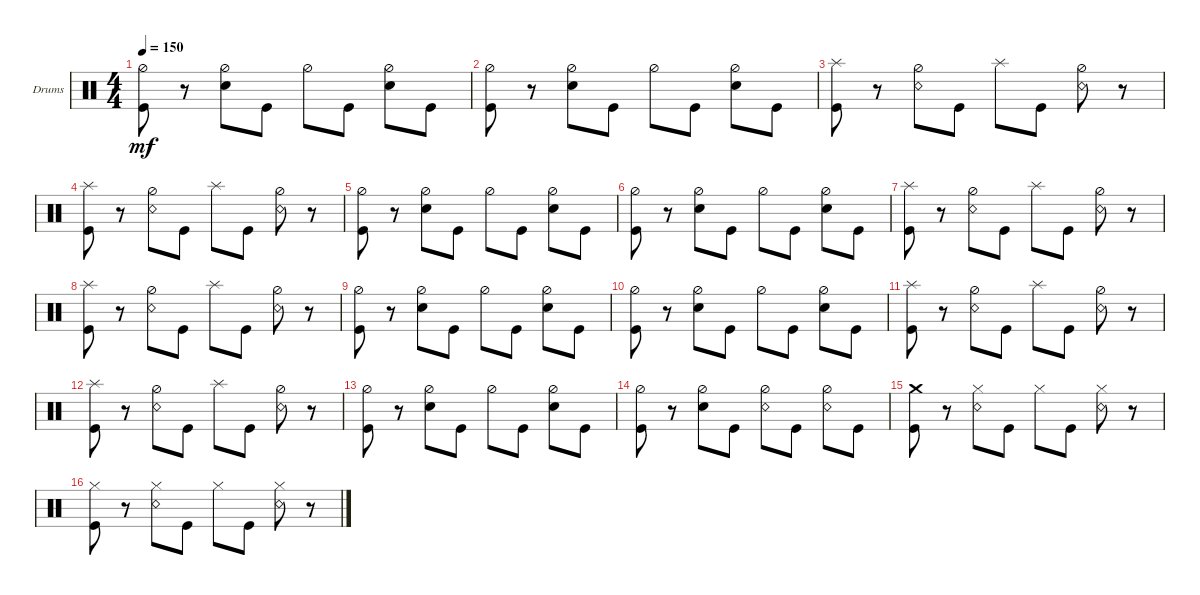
\defaultSystemsLayout 4
\bracketExtendMode groupsimilarinstruments
\firstSystemTrackNameOrientation horizontal
\otherSystemsTrackNameOrientation horizontal
\track ("Drumkit" "Drums") {instrument percussion}
\staff {score}
\articulation defaults
\ts (4 4)
\tempo 150
\clef neutral
\scale
0.333333
\ks c
("Kick (hit)" "Hi-Hat (half)").8{dy mf} r.8 ("Hi-Hat (half)" "Snare (hit) 2").8 "Kick (hit)".8 "Hi-Hat (half)".8 "Kick (hit)".8 ("Hi-Hat (half)" "Snare (hit) 2").8 "Kick (hit)".8 |
\scale
0.333333 ("Kick (hit)" "Hi-Hat (half)").8 r.8 ("Hi-Hat (half)" "Snare (hit) 2").8 "Kick (hit)".8 "Hi-Hat (half)".8 "Kick (hit)".8 ("Hi-Hat (half)" "Snare (hit) 2").8 "Kick (hit)".8 |
\scale
0.333333 ("Kick (hit)" "Splash (hit)").8 r.8 ("Hi-Hat (half)" "Snare (rim shot)").8 "Kick (hit)".8 "Splash (hit)".8 "Kick (hit)".8 ("Hi-Hat (half)" "Snare (rim shot)").8 r.8 |
\scale
0.333333 ("Kick (hit)" "Splash (hit)").8 r.8 ("Hi-Hat (half)" "Snare (rim shot)").8 "Kick (hit)".8 "Splash (hit)".8 "Kick (hit)".8 ("Hi-Hat (half)" "Snare (rim shot)").8 r.8 |
\scale
0.333333 ("Kick (hit)" "Hi-Hat (half)").8 r.8 ("Hi-Hat (half)" "Snare (hit) 2").8 "Kick (hit)".8 "Hi-Hat (half)".8 "Kick (hit)".8 ("Hi-Hat (half)" "Snare (hit) 2").8 "Kick (hit)".8 |
\scale
0.333333 ("Kick (hit)" "Hi-Hat (half)").8 r.8 ("Hi-Hat (half)" "Snare (hit) 2").8 "Kick (hit)".8 "Hi-Hat (half)".8 "Kick (hit)".8 ("Hi-Hat (half)" "Snare (hit) 2").8 "Kick (hit)".8 |
\scale
0.333333 ("Kick (hit)" "Splash (hit)").8 r.8 ("Hi-Hat (half)" "Snare (rim shot)").8 "Kick (hit)".8 "Splash (hit)".8 "Kick (hit)".8 ("Hi-Hat (half)" "Snare (rim shot)").8 r.8 |
\scale
0.333333 ("Kick (hit)" "Splash (hit)").8 r.8 ("Hi-Hat (half)" "Snare (rim shot)").8 "Kick (hit)".8 "Splash (hit)".8 "Kick (hit)".8 ("Hi-Hat (half)" "Snare (rim shot)").8 r.8 |
\scale
0.333333 ("Kick (hit)" "Hi-Hat (half)").8 r.8 ("Hi-Hat (half)" "Snare (hit) 2").8 "Kick (hit)".8 "Hi-Hat (half)".8 "Kick (hit)".8 ("Hi-Hat (half)" "Snare (hit) 2").8 "Kick (hit)".8 |
\scale
0.333333 ("Kick (hit)" "Hi-Hat (half)").8 r.8 ("Hi-Hat (half)" "Snare (hit) 2").8 "Kick (hit)".8 "Hi-Hat (half)".8 "Kick (hit)".8 ("Hi-Hat (half)" "Snare (hit) 2").8 "Kick (hit)".8 |
\scale
0.333333 ("Kick (hit)" "Splash (hit)").8 r.8 ("Hi-Hat (half)" "Snare (rim shot)").8 "Kick (hit)".8 "Splash (hit)".8 "Kick (hit)".8 ("Hi-Hat (half)" "Snare (rim shot)").8 r.8 |
("Kick (hit)" "Splash (hit)").8 r.8 ("Hi-Hat (half)" "Snare (rim shot)").8 "Kick (hit)".8 "Splash (hit)".8 "Kick (hit)".8 ("Hi-Hat (half)" "Snare (rim shot)").8 r.8 |
("Kick (hit)" "Hi-Hat (half)").8 r.8 ("Hi-Hat (half)" "Snare (hit) 2").8 "Kick (hit)".8 "Hi-Hat (half)".8 "Kick (hit)".8 ("Hi-Hat (half)" "Snare (hit) 2").8 "Kick (hit)".8 |
("Kick (hit)" "Hi-Hat (half)").8 r.8 ("Hi-Hat (half)" "Snare (hit) 2").8 "Kick (hit)".8 ("Hi-Hat (half)" "Snare (rim shot)").8 "Kick (hit)".8 ("Hi-Hat (half)" "Snare (rim shot)").8 "Kick (hit)".8 |
("Kick (hit)" "Crash medium (hit)").8 r.8 ("Hi-Hat (closed)" "Snare (rim shot)").8 "Kick (hit)".8 "Hi-Hat (closed)".8 "Kick (hit)".8 ("Hi-Hat (closed)" "Snare (rim shot)").8 r.8 |
("Kick (hit)" "Hi-Hat (closed)").8 r.8 ("Hi-Hat (closed)" "Snare (rim shot)").8 "Kick (hit)".8 "Hi-Hat (closed)".8 "Kick (hit)".8 ("Hi-Hat (closed)" "Snare (rim shot)").8 r.8
